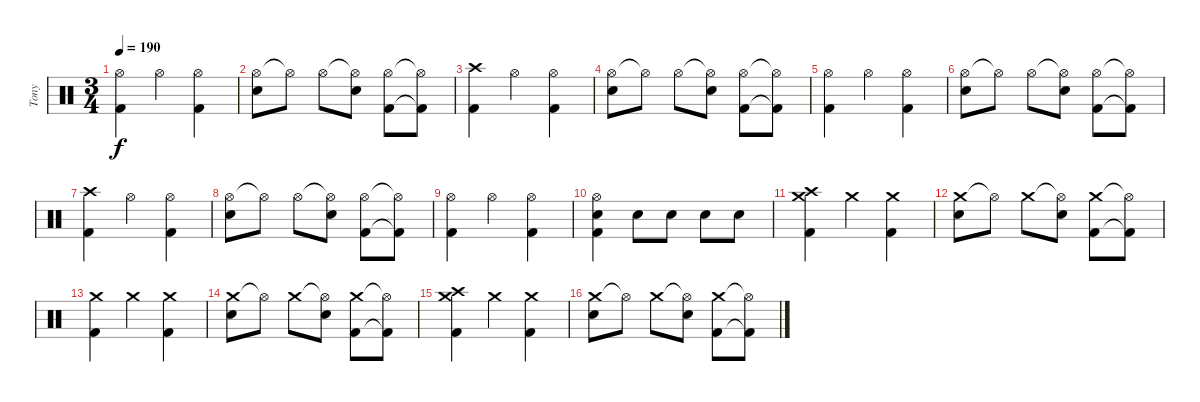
\track ("Tony" "Tony") {instrument percussion}
\staff {score}
\articulation defaults
\ts (3 4)
\tempo 190
\clef neutral
\ks c
("Hi-Hat (open)" "Kick (hit) 2").4{dy f} "Hi-Hat (open)".4 ("Hi-Hat (open)" "Kick (hit) 2").4 |
("Hi-Hat (open)" "Snare (hit) 2").8 "Hi-Hat (open)"{t}.8 "Hi-Hat (open)".8 ("Hi-Hat (open)"{t} "Snare (hit) 2").8 ("Hi-Hat (open)" "Kick (hit) 2").8 ("Hi-Hat (open)"{t} "Kick (hit) 2"{t}).8 |
("Crash high (hit)" "Kick (hit) 2").4 "Hi-Hat (open)".4 ("Hi-Hat (open)" "Kick (hit) 2").4 |
("Hi-Hat (open)" "Snare (hit) 2").8 "Hi-Hat (open)"{t}.8 "Hi-Hat (open)".8 ("Hi-Hat (open)"{t} "Snare (hit) 2").8 ("Hi-Hat (open)" "Kick (hit) 2").8 ("Hi-Hat (open)"{t} "Kick (hit) 2"{t}).8 |
("Hi-Hat (open)" "Kick (hit) 2").4 "Hi-Hat (open)".4 ("Hi-Hat (open)" "Kick (hit) 2").4 |
("Hi-Hat (open)" "Snare (hit) 2").8 "Hi-Hat (open)"{t}.8 "Hi-Hat (open)".8 ("Hi-Hat (open)"{t} "Snare (hit) 2").8 ("Hi-Hat (open)" "Kick (hit) 2").8 ("Hi-Hat (open)"{t} "Kick (hit) 2"{t}).8 |
("Crash high (hit)" "Kick (hit) 2").4 "Hi-Hat (open)".4 ("Hi-Hat (open)" "Kick (hit) 2").4 |
("Hi-Hat (open)" "Snare (hit) 2").8 "Hi-Hat (open)"{t}.8 "Hi-Hat (open)".8 ("Hi-Hat (open)"{t} "Snare (hit) 2").8 ("Hi-Hat (open)" "Kick (hit) 2").8 ("Hi-Hat (open)"{t} "Kick (hit) 2"{t}).8 |
("Hi-Hat (open)" "Kick (hit) 2").4 "Hi-Hat (open)".4 ("Hi-Hat (open)" "Kick (hit) 2").4 |
("Hi-Hat (open)" "Snare (hit) 2" "Kick (hit) 2").4 "Snare (hit) 2".8 "Snare (hit) 2".8 "Snare (hit) 2".8 "Snare (hit) 2".8 |
("Crash medium (hit)" "Crash high (hit)" "Kick (hit) 2").4 "Crash medium (hit)".4 ("Crash medium (hit)" "Kick (hit) 2").4 |
("Crash medium (hit)" "Snare (hit) 2").8 "Hi-Hat (open)"{t}.8 "Crash medium (hit)".8 ("Hi-Hat (open)"{t} "Snare (hit) 2").8 ("Crash medium (hit)" "Kick (hit) 2").8 ("Hi-Hat (open)"{t} "Kick (hit) 2"{t}).8 |
("Crash medium (hit)" "Kick (hit) 2").4 "Crash medium (hit)".4 ("Crash medium (hit)" "Kick (hit) 2").4 |
("Crash medium (hit)" "Snare (hit) 2").8 "Hi-Hat (open)"{t}.8 "Crash medium (hit)".8 ("Hi-Hat (open)"{t} "Snare (hit) 2").8 ("Crash medium (hit)" "Kick (hit) 2").8 ("Hi-Hat (open)"{t} "Kick (hit) 2"{t}).8 |
("Crash medium (hit)" "Crash high (hit)" "Kick (hit) 2").4 "Crash medium (hit)".4 ("Crash medium (hit)" "Kick (hit) 2").4 |
("Crash medium (hit)" "Snare (hit) 2").8 "Hi-Hat (open)"{t}.8 "Crash medium (hit)".8 ("Hi-Hat (open)"{t} "Snare (hit) 2").8 ("Crash medium (hit)" "Kick (hit) 2").8 ("Hi-Hat (open)"{t} "Kick (hit) 2"{t}).8
